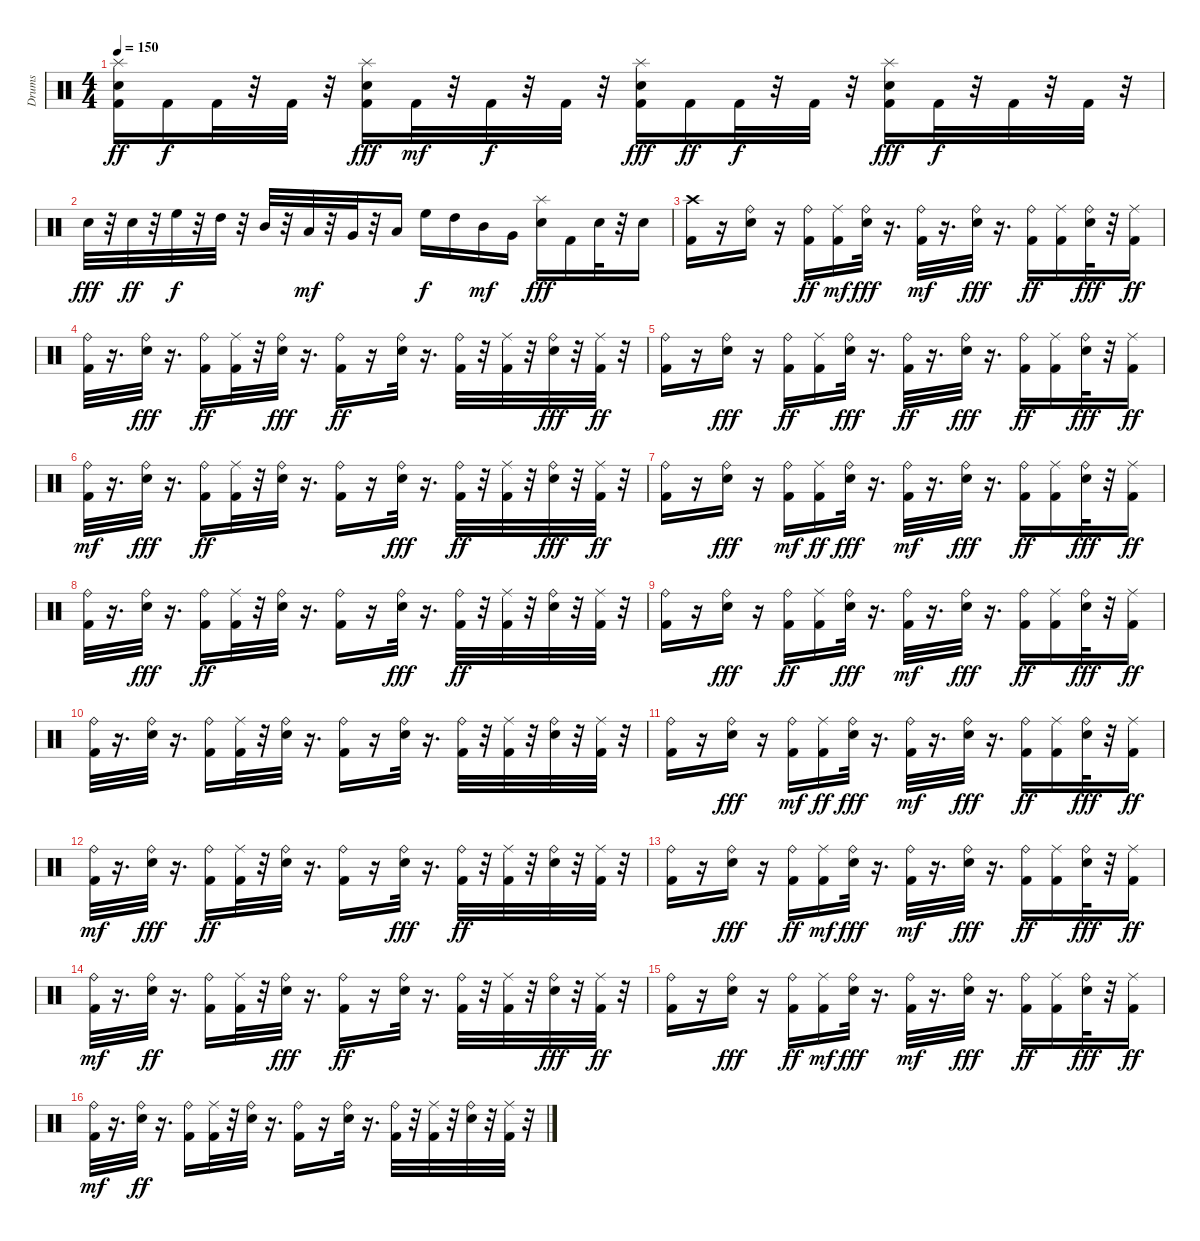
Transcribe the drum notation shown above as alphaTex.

\track ("Drums" "Drums") {instrument percussion}
\staff {score}
\articulation defaults
\ts (4 4)
\tempo 150
\clef neutral
\ks c
("Splash (hit)" "Electric Snare (hit)" "Kick (hit) 2").16{dy ff} "Kick (hit) 2".16{dy f} "Kick (hit) 2".32 r.32 "Kick (hit) 2".32 r.32 ("Kick (hit) 2" "Splash (hit)" "Electric Snare (hit)").16{dy fff} "Kick (hit) 2".32{dy mf} r.32 "Kick (hit) 2".32{dy f} r.32 "Kick (hit) 2".32 r.32 ("Kick (hit) 2" "Electric Snare (hit)" "Splash (hit)").16{dy fff} "Kick (hit) 2".16{dy ff} "Kick (hit) 2".32{dy f} r.32 "Kick (hit) 2".32 r.32 ("Splash (hit)" "Kick (hit) 2" "Electric Snare (hit)").16{dy fff} "Kick (hit) 2".32{dy f} r.32 "Kick (hit) 2".32 r.32 "Kick (hit) 2".32 r.32 |
"Electric Snare (hit)".32{dy fff} r.32 "Electric Snare (hit)".32{dy ff} r.32 "High Floor Tom (hit)".32{dy f} r.32 "High Tom (hit)".32 r.32 "Mid Tom (hit)".32 r.32 "Low Tom (hit)".32{dy mf} r.32 "Very Low Tom (hit)".32 r.32 "Low Floor Tom (hit)".16 "High Floor Tom (hit)".16{dy f} "High Tom (hit)".16 "Mid Tom (hit)".16{dy mf} "Very Low Tom (hit)".16 ("Splash (hit)" "Electric Snare (hit)").16{dy fff} "Kick (hit) 2".16 "Electric Snare (hit)".32 r.32 "Electric Snare (hit)".16 |
("Kick (hit) 2" "Crash high (hit)").16 r.16 ("Electric Snare (hit)" "Ride (bell)").16 r.16 ("Ride (bell)" "Kick (hit) 2").16{dy ff} ("Kick (hit) 2" "Ride (middle)").16{dy mf} ("Ride (bell)" "Electric Snare (hit)").32{dy fff} r.16{d} ("Kick (hit) 2" "Ride (bell)").32{dy mf} r.16{d} ("Electric Snare (hit)" "Ride (bell)").32{dy fff} r.16{d} ("Kick (hit) 2" "Ride (bell)").16{dy ff} ("Kick (hit) 2" "Ride (middle)").16 ("Electric Snare (hit)" "Ride (bell)").32{dy fff} r.32 ("Ride (middle)" "Kick (hit) 2").16{dy ff} |
("Ride (bell)" "Kick (hit) 2").32 r.16{d} ("Ride (bell)" "Electric Snare (hit)").32{dy fff} r.16{d} ("Ride (bell)" "Kick (hit) 2").16{dy ff} ("Kick (hit) 2" "Ride (middle)").32 r.32 ("Ride (bell)" "Electric Snare (hit)").32{dy fff} r.16{d} ("Kick (hit) 2" "Ride (bell)").16{dy ff} r.16 ("Electric Snare (hit)" "Ride (bell)").32 r.16{d} ("Ride (bell)" "Kick (hit) 2").32 r.32 ("Kick (hit) 2" "Ride (middle)").32 r.32 ("Ride (bell)" "Electric Snare (hit)").32{dy fff} r.32 ("Ride (middle)" "Kick (hit) 2").32{dy ff} r.32 |
("Ride (bell)" "Kick (hit) 2").16 r.16 ("Electric Snare (hit)" "Ride (bell)").16{dy fff} r.16 ("Ride (bell)" "Kick (hit) 2").16{dy ff} ("Ride (middle)" "Kick (hit) 2").16 ("Electric Snare (hit)" "Ride (bell)").32{dy fff} r.16{d} ("Ride (bell)" "Kick (hit) 2").32{dy ff} r.16{d} ("Ride (bell)" "Electric Snare (hit)").32{dy fff} r.16{d} ("Ride (bell)" "Kick (hit) 2").16{dy ff} ("Kick (hit) 2" "Ride (middle)").16 ("Ride (bell)" "Electric Snare (hit)").32{dy fff} r.32 ("Ride (middle)" "Kick (hit) 2").16{dy ff} |
("Kick (hit) 2" "Ride (bell)").32{dy mf} r.16{d} ("Ride (bell)" "Electric Snare (hit)").32{dy fff} r.16{d} ("Ride (bell)" "Kick (hit) 2").16{dy ff} ("Kick (hit) 2" "Ride (middle)").32 r.32 ("Electric Snare (hit)" "Ride (bell)").32 r.16{d} ("Kick (hit) 2" "Ride (bell)").16 r.16 ("Ride (bell)" "Electric Snare (hit)").32{dy fff} r.16{d} ("Kick (hit) 2" "Ride (bell)").32{dy ff} r.32 ("Kick (hit) 2" "Ride (middle)").32 r.32 ("Ride (bell)" "Electric Snare (hit)").32{dy fff} r.32 ("Kick (hit) 2" "Ride (middle)").32{dy ff} r.32 |
("Ride (bell)" "Kick (hit) 2").16 r.16 ("Electric Snare (hit)" "Ride (bell)").16{dy fff} r.16 ("Kick (hit) 2" "Ride (bell)").16{dy mf} ("Ride (middle)" "Kick (hit) 2").16{dy ff} ("Electric Snare (hit)" "Ride (bell)").32{dy fff} r.16{d} ("Kick (hit) 2" "Ride (bell)").32{dy mf} r.16{d} ("Ride (bell)" "Electric Snare (hit)").32{dy fff} r.16{d} ("Kick (hit) 2" "Ride (bell)").16{dy ff} ("Ride (middle)" "Kick (hit) 2").16 ("Electric Snare (hit)" "Ride (bell)").32{dy fff} r.32 ("Kick (hit) 2" "Ride (middle)").16{dy ff} |
("Ride (bell)" "Kick (hit) 2").32 r.16{d} ("Ride (bell)" "Electric Snare (hit)").32{dy fff} r.16{d} ("Kick (hit) 2" "Ride (bell)").16{dy ff} ("Kick (hit) 2" "Ride (middle)").32 r.32 ("Electric Snare (hit)" "Ride (bell)").32 r.16{d} ("Ride (bell)" "Kick (hit) 2").16 r.16 ("Ride (bell)" "Electric Snare (hit)").32{dy fff} r.16{d} ("Ride (bell)" "Kick (hit) 2").32{dy ff} r.32 ("Ride (middle)" "Kick (hit) 2").32 r.32 ("Electric Snare (hit)" "Ride (bell)").32 r.32 ("Ride (middle)" "Kick (hit) 2").32 r.32 |
("Ride (bell)" "Kick (hit) 2").16 r.16 ("Electric Snare (hit)" "Ride (bell)").16{dy fff} r.16 ("Ride (bell)" "Kick (hit) 2").16{dy ff} ("Ride (middle)" "Kick (hit) 2").16 ("Electric Snare (hit)" "Ride (bell)").32{dy fff} r.16{d} ("Kick (hit) 2" "Ride (bell)").32{dy mf} r.16{d} ("Electric Snare (hit)" "Ride (bell)").32{dy fff} r.16{d} ("Ride (bell)" "Kick (hit) 2").16{dy ff} ("Kick (hit) 2" "Ride (middle)").16 ("Electric Snare (hit)" "Ride (bell)").32{dy fff} r.32 ("Kick (hit) 2" "Ride (middle)").16{dy ff} |
("Ride (bell)" "Kick (hit) 2").32 r.16{d} ("Electric Snare (hit)" "Ride (bell)").32 r.16{d} ("Kick (hit) 2" "Ride (bell)").16 ("Ride (middle)" "Kick (hit) 2").32 r.32 ("Electric Snare (hit)" "Ride (bell)").32 r.16{d} ("Ride (bell)" "Kick (hit) 2").16 r.16 ("Electric Snare (hit)" "Ride (bell)").32 r.16{d} ("Ride (bell)" "Kick (hit) 2").32 r.32 ("Kick (hit) 2" "Ride (middle)").32 r.32 ("Electric Snare (hit)" "Ride (bell)").32 r.32 ("Ride (middle)" "Kick (hit) 2").32 r.32 |
("Kick (hit) 2" "Ride (bell)").16 r.16 ("Ride (bell)" "Electric Snare (hit)").16{dy fff} r.16 ("Kick (hit) 2" "Ride (bell)").16{dy mf} ("Ride (middle)" "Kick (hit) 2").16{dy ff} ("Ride (bell)" "Electric Snare (hit)").32{dy fff} r.16{d} ("Kick (hit) 2" "Ride (bell)").32{dy mf} r.16{d} ("Ride (bell)" "Electric Snare (hit)").32{dy fff} r.16{d} ("Kick (hit) 2" "Ride (bell)").16{dy ff} ("Ride (middle)" "Kick (hit) 2").16 ("Electric Snare (hit)" "Ride (bell)").32{dy fff} r.32 ("Ride (middle)" "Kick (hit) 2").16{dy ff} |
("Kick (hit) 2" "Ride (bell)").32{dy mf} r.16{d} ("Ride (bell)" "Electric Snare (hit)").32{dy fff} r.16{d} ("Kick (hit) 2" "Ride (bell)").16{dy ff} ("Ride (middle)" "Kick (hit) 2").32 r.32 ("Electric Snare (hit)" "Ride (bell)").32 r.16{d} ("Ride (bell)" "Kick (hit) 2").16 r.16 ("Ride (bell)" "Electric Snare (hit)").32{dy fff} r.16{d} ("Kick (hit) 2" "Ride (bell)").32{dy ff} r.32 ("Ride (middle)" "Kick (hit) 2").32 r.32 ("Electric Snare (hit)" "Ride (bell)").32 r.32 ("Ride (middle)" "Kick (hit) 2").32 r.32 |
("Ride (bell)" "Kick (hit) 2").16 r.16 ("Ride (bell)" "Electric Snare (hit)").16{dy fff} r.16 ("Ride (bell)" "Kick (hit) 2").16{dy ff} ("Kick (hit) 2" "Ride (middle)").16{dy mf} ("Ride (bell)" "Electric Snare (hit)").32{dy fff} r.16{d} ("Kick (hit) 2" "Ride (bell)").32{dy mf} r.16{d} ("Ride (bell)" "Electric Snare (hit)").32{dy fff} r.16{d} ("Kick (hit) 2" "Ride (bell)").16{dy ff} ("Ride (middle)" "Kick (hit) 2").16 ("Ride (bell)" "Electric Snare (hit)").32{dy fff} r.32 ("Kick (hit) 2" "Ride (middle)").16{dy ff} |
("Kick (hit) 2" "Ride (bell)").32{dy mf} r.16{d} ("Electric Snare (hit)" "Ride (bell)").32{dy ff} r.16{d} ("Ride (bell)" "Kick (hit) 2").16 ("Kick (hit) 2" "Ride (middle)").32 r.32 ("Ride (bell)" "Electric Snare (hit)").32{dy fff} r.16{d} ("Kick (hit) 2" "Ride (bell)").16{dy ff} r.16 ("Electric Snare (hit)" "Ride (bell)").32 r.16{d} ("Ride (bell)" "Kick (hit) 2").32 r.32 ("Kick (hit) 2" "Ride (middle)").32 r.32 ("Ride (bell)" "Electric Snare (hit)").32{dy fff} r.32 ("Kick (hit) 2" "Ride (middle)").32{dy ff} r.32 |
("Ride (bell)" "Kick (hit) 2").16 r.16 ("Electric Snare (hit)" "Ride (bell)").16{dy fff} r.16 ("Ride (bell)" "Kick (hit) 2").16{dy ff} ("Kick (hit) 2" "Ride (middle)").16{dy mf} ("Electric Snare (hit)" "Ride (bell)").32{dy fff} r.16{d} ("Kick (hit) 2" "Ride (bell)").32{dy mf} r.16{d} ("Electric Snare (hit)" "Ride (bell)").32{dy fff} r.16{d} ("Ride (bell)" "Kick (hit) 2").16{dy ff} ("Kick (hit) 2" "Ride (middle)").16 ("Ride (bell)" "Electric Snare (hit)").32{dy fff} r.32 ("Ride (middle)" "Kick (hit) 2").16{dy ff} |
("Kick (hit) 2" "Ride (bell)").32{dy mf} r.16{d} ("Electric Snare (hit)" "Ride (bell)").32{dy ff} r.16{d} ("Ride (bell)" "Kick (hit) 2").16 ("Ride (middle)" "Kick (hit) 2").32 r.32 ("Electric Snare (hit)" "Ride (bell)").32 r.16{d} ("Kick (hit) 2" "Ride (bell)").16 r.16 ("Electric Snare (hit)" "Ride (bell)").32 r.16{d} ("Kick (hit) 2" "Ride (bell)").32 r.32 ("Kick (hit) 2" "Ride (middle)").32 r.32 ("Electric Snare (hit)" "Ride (bell)").32 r.32 ("Ride (middle)" "Kick (hit) 2").32 r.32
